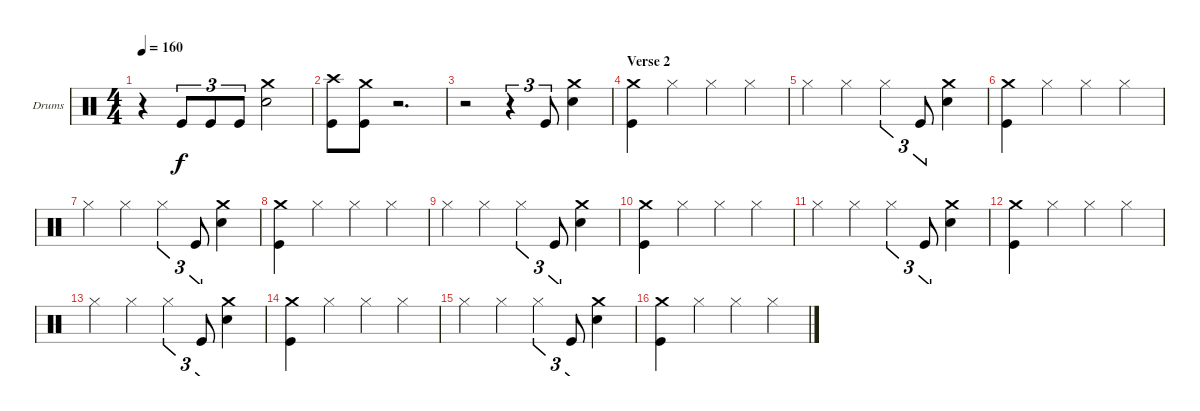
\bracketExtendMode groupsimilarinstruments
\firstSystemTrackNameOrientation horizontal
\otherSystemsTrackNameOrientation horizontal
\track ("Drumkit" "Drums") {instrument percussion}
\staff {score}
\articulation defaults
\ts (4 4)
\tempo 160
\clef neutral
\ks c
r.4{dy f} "Kick (hit)".8{tu (3 2)} "Kick (hit)".8{tu (3 2)} "Kick (hit)".8{tu (3 2)} ("Snare (hit) 2" "Crash medium (hit)").2 |
("Kick (hit)" "Crash high (hit)").8 ("Kick (hit)" "Crash medium (hit)").8 r.2{d} |
r.2 r.4{tu (3 2)} "Kick (hit)".8{tu (3 2)} ("Snare (hit) 2" "Crash medium (hit)").4 |
\section ("" "Verse 2")
("Crash medium (hit)" "Kick (hit)").4 "Hi-Hat (closed)".4 "Hi-Hat (closed)".4 "Hi-Hat (closed)".4 |
"Hi-Hat (closed)".4 "Hi-Hat (closed)".4 "Hi-Hat (closed)".4{tu (3 2)} "Kick (hit)".8{tu (3 2)} ("Crash medium (hit)" "Snare (hit) 2").4 |
("Crash medium (hit)" "Kick (hit)").4 "Hi-Hat (closed)".4 "Hi-Hat (closed)".4 "Hi-Hat (closed)".4 |
"Hi-Hat (closed)".4 "Hi-Hat (closed)".4 "Hi-Hat (closed)".4{tu (3 2)} "Kick (hit)".8{tu (3 2)} ("Crash medium (hit)" "Snare (hit) 2").4 |
("Crash medium (hit)" "Kick (hit)").4 "Hi-Hat (closed)".4 "Hi-Hat (closed)".4 "Hi-Hat (closed)".4 |
"Hi-Hat (closed)".4 "Hi-Hat (closed)".4 "Hi-Hat (closed)".4{tu (3 2)} "Kick (hit)".8{tu (3 2)} ("Crash medium (hit)" "Snare (hit) 2").4 |
("Crash medium (hit)" "Kick (hit)").4 "Hi-Hat (closed)".4 "Hi-Hat (closed)".4 "Hi-Hat (closed)".4 |
"Hi-Hat (closed)".4 "Hi-Hat (closed)".4 "Hi-Hat (closed)".4{tu (3 2)} "Kick (hit)".8{tu (3 2)} ("Crash medium (hit)" "Snare (hit) 2").4 |
("Crash medium (hit)" "Kick (hit)").4 "Hi-Hat (closed)".4 "Hi-Hat (closed)".4 "Hi-Hat (closed)".4 |
"Hi-Hat (closed)".4 "Hi-Hat (closed)".4 "Hi-Hat (closed)".4{tu (3 2)} "Kick (hit)".8{tu (3 2)} ("Crash medium (hit)" "Snare (hit) 2").4 |
("Crash medium (hit)" "Kick (hit)").4 "Hi-Hat (closed)".4 "Hi-Hat (closed)".4 "Hi-Hat (closed)".4 |
"Hi-Hat (closed)".4 "Hi-Hat (closed)".4 "Hi-Hat (closed)".4{tu (3 2)} "Kick (hit)".8{tu (3 2)} ("Crash medium (hit)" "Snare (hit) 2").4 |
("Crash medium (hit)" "Kick (hit)").4 "Hi-Hat (closed)".4 "Hi-Hat (closed)".4 "Hi-Hat (closed)".4
